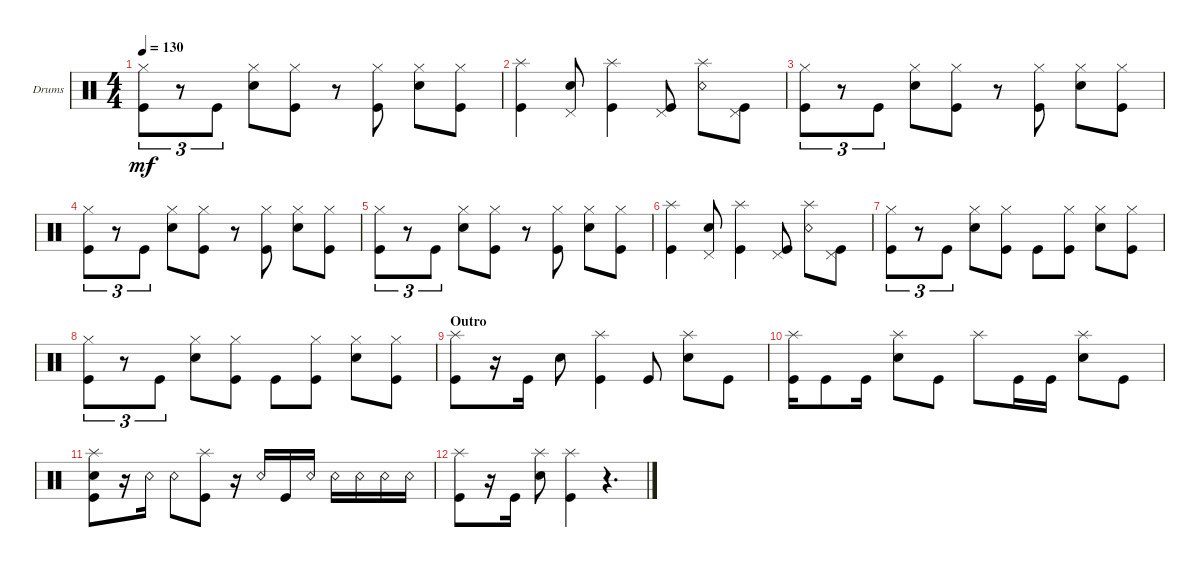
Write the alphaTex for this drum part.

\defaultSystemsLayout 4
\bracketExtendMode groupsimilarinstruments
\firstSystemTrackNameOrientation horizontal
\otherSystemsTrackNameOrientation horizontal
\track ("Drumkit" "Drums") {instrument percussion}
\staff {score}
\articulation defaults
\ts (4 4)
\tempo 130
\clef neutral
\ks c
("Kick (hit)" "Hi-Hat (closed)").8{tu (3 2) dy mf} r.8{tu (3 2)} "Kick (hit)".8{tu (3 2)} ("Snare (hit) 2" "Hi-Hat (closed)").8 ("Kick (hit)" "Hi-Hat (closed)").8 r.8 ("Kick (hit)" "Hi-Hat (closed)").8 ("Snare (hit) 2" "Hi-Hat (closed)").8 ("Kick (hit)" "Hi-Hat (closed)").8 |
("Kick (hit)" "Splash (hit)").4 ("Snare (hit) 2" "Pedal Hi-Hat (hit)").8 ("Kick (hit)" "Splash (hit)").4 ("Kick (hit)" "Pedal Hi-Hat (hit)").8 ("Snare (rim shot)" "Splash (hit)").8 ("Kick (hit)" "Pedal Hi-Hat (hit)").8 |
("Kick (hit)" "Hi-Hat (closed)").8{tu (3 2)} r.8{tu (3 2)} "Kick (hit)".8{tu (3 2)} ("Snare (hit) 2" "Hi-Hat (closed)").8 ("Kick (hit)" "Hi-Hat (closed)").8 r.8 ("Kick (hit)" "Hi-Hat (closed)").8 ("Snare (hit) 2" "Hi-Hat (closed)").8 ("Kick (hit)" "Hi-Hat (closed)").8 |
("Kick (hit)" "Hi-Hat (closed)").8{tu (3 2)} r.8{tu (3 2)} "Kick (hit)".8{tu (3 2)} ("Snare (hit) 2" "Hi-Hat (closed)").8 ("Kick (hit)" "Hi-Hat (closed)").8 r.8 ("Kick (hit)" "Hi-Hat (closed)").8 ("Snare (hit) 2" "Hi-Hat (closed)").8 ("Kick (hit)" "Hi-Hat (closed)").8 |
("Kick (hit)" "Hi-Hat (closed)").8{tu (3 2)} r.8{tu (3 2)} "Kick (hit)".8{tu (3 2)} ("Snare (hit) 2" "Hi-Hat (closed)").8 ("Kick (hit)" "Hi-Hat (closed)").8 r.8 ("Kick (hit)" "Hi-Hat (closed)").8 ("Snare (hit) 2" "Hi-Hat (closed)").8 ("Kick (hit)" "Hi-Hat (closed)").8 |
("Kick (hit)" "Splash (hit)").4 ("Snare (hit) 2" "Pedal Hi-Hat (hit)").8 ("Kick (hit)" "Splash (hit)").4 ("Kick (hit)" "Pedal Hi-Hat (hit)").8 ("Snare (rim shot)" "Splash (hit)").8 ("Kick (hit)" "Pedal Hi-Hat (hit)").8 |
("Kick (hit)" "Hi-Hat (closed)").8{tu (3 2)} r.8{tu (3 2)} "Kick (hit)".8{tu (3 2)} ("Snare (hit) 2" "Hi-Hat (closed)").8 ("Kick (hit)" "Hi-Hat (closed)").8 "Kick (hit)".8 ("Kick (hit)" "Hi-Hat (closed)").8 ("Snare (hit) 2" "Hi-Hat (closed)").8 ("Kick (hit)" "Hi-Hat (closed)").8 |
("Kick (hit)" "Hi-Hat (closed)").8{tu (3 2)} r.8{tu (3 2)} "Kick (hit)".8{tu (3 2)} ("Snare (hit) 2" "Hi-Hat (closed)").8 ("Kick (hit)" "Hi-Hat (closed)").8 "Kick (hit)".8 ("Kick (hit)" "Hi-Hat (closed)").8 ("Snare (hit) 2" "Hi-Hat (closed)").8 ("Kick (hit)" "Hi-Hat (closed)").8 |
\section ("" "Outro")
("Kick (hit)" "Splash (hit)").8 r.16 "Kick (hit)".16 "Snare (hit) 2".8 ("Kick (hit)" "Splash (hit)").4 "Kick (hit)".8 ("Snare (hit) 2" "Splash (hit)").8 "Kick (hit)".8 |
("Kick (hit)" "Splash (hit)").16 "Kick (hit)".8 "Kick (hit)".16 ("Snare (hit) 2" "Splash (hit)").8 "Kick (hit)".8 "Splash (hit)".8 "Kick (hit)".16 "Kick (hit)".16 ("Snare (hit) 2" "Splash (hit)").8 "Kick (hit)".8 |
("Kick (hit)" "Snare (hit) 2" "Splash (hit)").8 r.16 "Snare (rim shot)".16 "Snare (rim shot)".8 ("Kick (hit)" "Splash (hit)").8 r.16 "Snare (rim shot)".16 "Kick (hit)".16 "Snare (rim shot)".16 "Snare (rim shot)".16 "Snare (rim shot)".16 "Snare (rim shot)".16 "Snare (rim shot)".16 |
("Kick (hit)" "Splash (hit)").8 r.16 "Kick (hit)".16 ("Snare (hit) 2" "Splash (hit)").8 ("Kick (hit)" "Splash (hit)").4 r.4{d}
